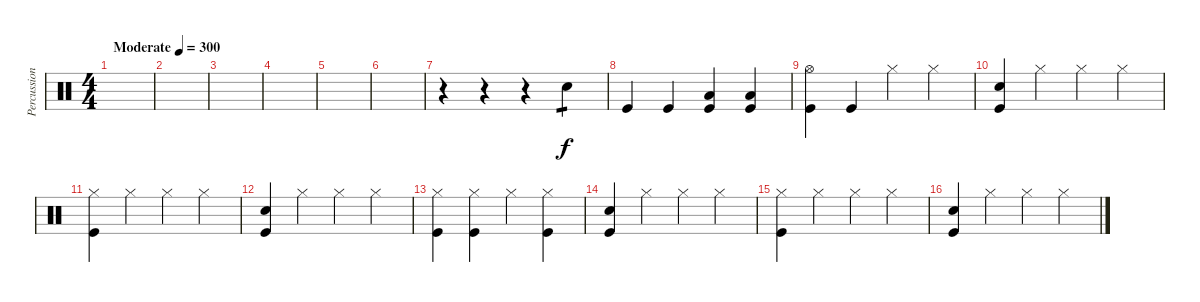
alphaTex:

\track ("Percussion" "Percussion") {instrument percussion}
\staff {score}
\articulation defaults
\ts (4 4)
\tempo (300 "Moderate")
\clef neutral
\ks c
|
|
|
|
|
|
r.4 r.4 r.4 "Electric Snare (hit)".4{tp 1} |
"Kick (hit)".4 "Kick (hit)".4 ("Kick (hit)" "Low Floor Tom (hit)").4 ("Kick (hit)" "Low Floor Tom (hit)").4 |
("Kick (hit)" "Hi-Hat (open)").4 "Kick (hit)".4 "Hi-Hat (closed)".4 "Hi-Hat (closed)".4 |
("Kick (hit)" "Electric Snare (hit)").4 "Hi-Hat (closed)".4 "Hi-Hat (closed)".4 "Hi-Hat (closed)".4 |
("Kick (hit)" "Hi-Hat (closed)").4 "Hi-Hat (closed)".4 "Hi-Hat (closed)".4 "Hi-Hat (closed)".4 |
("Kick (hit)" "Electric Snare (hit)").4 "Hi-Hat (closed)".4 "Hi-Hat (closed)".4 "Hi-Hat (closed)".4 |
("Kick (hit)" "Hi-Hat (closed)").4 ("Kick (hit)" "Hi-Hat (closed)").4 "Hi-Hat (closed)".4 ("Kick (hit)" "Hi-Hat (closed)").4 |
("Kick (hit)" "Electric Snare (hit)").4 "Hi-Hat (closed)".4 "Hi-Hat (closed)".4 "Hi-Hat (closed)".4 |
("Kick (hit)" "Hi-Hat (closed)").4 "Hi-Hat (closed)".4 "Hi-Hat (closed)".4 "Hi-Hat (closed)".4 |
("Kick (hit)" "Electric Snare (hit)").4 "Hi-Hat (closed)".4 "Hi-Hat (closed)".4 "Hi-Hat (closed)".4
